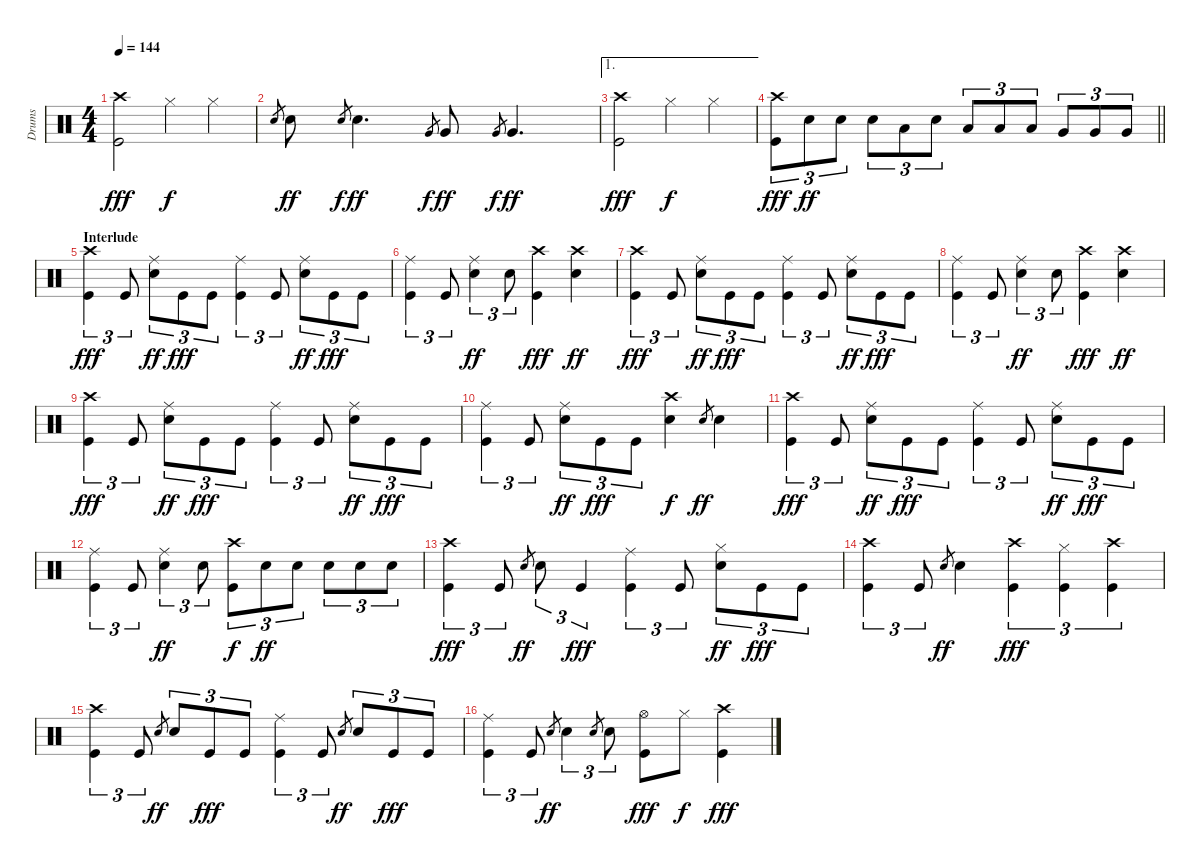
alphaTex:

\track ("Drums" "Drums") {instrument percussion}
\staff {score}
\articulation defaults
\ts (4 4)
\tempo 144
\clef neutral
\ks c
("Kick (hit)" "Crash high (hit)").2{dy fff} "Hi-Hat (closed)".4{dy f} "Hi-Hat (closed)".4 |
"Snare (hit) 2".8{gr} "Snare (hit) 2".8{dy ff} "Snare (hit) 2".8{gr dy f} "Snare (hit) 2".4{d dy ff} "Very Low Tom (hit)".8{gr dy f} "Very Low Tom (hit)".8{dy ff} "Very Low Tom (hit)".8{gr dy f} "Very Low Tom (hit)".4{d dy ff} |
\ae 1
("Kick (hit)" "Crash high (hit)").2{dy fff} "Hi-Hat (closed)".4{dy f} "Hi-Hat (closed)".4 |
\barLineRight lightlight
("Crash high (hit)" "Kick (hit)").8{tu (3 2) dy fff} "Snare (hit) 2".8{tu (3 2) dy ff} "Snare (hit) 2".8{tu (3 2)} "Snare (hit) 2".8{tu (3 2)} "Low Tom (hit)".8{tu (3 2)} "Snare (hit) 2".8{tu (3 2)} "Low Tom (hit)".8{tu (3 2)} "Low Tom (hit)".8{tu (3 2)} "Low Tom (hit)".8{tu (3 2)} "Very Low Tom (hit)".8{tu (3 2)} "Very Low Tom (hit)".8{tu (3 2)} "Very Low Tom (hit)".8{tu (3 2)} |
\section ("" "Interlude")
("Kick (hit)" "Crash high (hit)").4{tu (3 2) dy fff} "Kick (hit)".8{tu (3 2)} ("Ride (middle)" "Snare (hit) 2").8{tu (3 2) dy ff} "Kick (hit)".8{tu (3 2) dy fff} "Kick (hit)".8{tu (3 2)} ("Ride (middle)" "Kick (hit)").4{tu (3 2)} "Kick (hit)".8{tu (3 2)} ("Ride (middle)" "Snare (hit) 2").8{tu (3 2) dy ff} "Kick (hit)".8{tu (3 2) dy fff} "Kick (hit)".8{tu (3 2)} |
("Kick (hit)" "Ride (middle)").4{tu (3 2)} "Kick (hit)".8{tu (3 2)} ("Ride (middle)" "Snare (hit) 2").4{tu (3 2) dy ff} "Snare (hit) 2".8{tu (3 2)} ("Crash high (hit)" "Kick (hit)").4{dy fff} ("Snare (hit) 2" "Crash high (hit)").4{dy ff} |
("Kick (hit)" "Crash high (hit)").4{tu (3 2) dy fff} "Kick (hit)".8{tu (3 2)} ("Ride (middle)" "Snare (hit) 2").8{tu (3 2) dy ff} "Kick (hit)".8{tu (3 2) dy fff} "Kick (hit)".8{tu (3 2)} ("Ride (middle)" "Kick (hit)").4{tu (3 2)} "Kick (hit)".8{tu (3 2)} ("Ride (middle)" "Snare (hit) 2").8{tu (3 2) dy ff} "Kick (hit)".8{tu (3 2) dy fff} "Kick (hit)".8{tu (3 2)} |
("Kick (hit)" "Ride (middle)").4{tu (3 2)} "Kick (hit)".8{tu (3 2)} ("Ride (middle)" "Snare (hit) 2").4{tu (3 2) dy ff} "Snare (hit) 2".8{tu (3 2)} ("Crash high (hit)" "Kick (hit)").4{dy fff} ("Snare (hit) 2" "Crash high (hit)").4{dy ff} |
("Kick (hit)" "Crash high (hit)").4{tu (3 2) dy fff} "Kick (hit)".8{tu (3 2)} ("Ride (middle)" "Snare (hit) 2").8{tu (3 2) dy ff} "Kick (hit)".8{tu (3 2) dy fff} "Kick (hit)".8{tu (3 2)} ("Ride (middle)" "Kick (hit)").4{tu (3 2)} "Kick (hit)".8{tu (3 2)} ("Ride (middle)" "Snare (hit) 2").8{tu (3 2) dy ff} "Kick (hit)".8{tu (3 2) dy fff} "Kick (hit)".8{tu (3 2)} |
("Kick (hit)" "Ride (middle)").4{tu (3 2)} "Kick (hit)".8{tu (3 2)} ("Ride (middle)" "Snare (hit) 2").8{tu (3 2) dy ff} "Kick (hit)".8{tu (3 2) dy fff} "Kick (hit)".8{tu (3 2)} ("Crash high (hit)" "Snare (hit) 2").4{dy f} "Snare (hit) 2".8{gr dy ff} "Snare (hit) 2".4 |
("Kick (hit)" "Crash high (hit)").4{tu (3 2) dy fff} "Kick (hit)".8{tu (3 2)} ("Ride (middle)" "Snare (hit) 2").8{tu (3 2) dy ff} "Kick (hit)".8{tu (3 2) dy fff} "Kick (hit)".8{tu (3 2)} ("Ride (middle)" "Kick (hit)").4{tu (3 2)} "Kick (hit)".8{tu (3 2)} ("Ride (middle)" "Snare (hit) 2").8{tu (3 2) dy ff} "Kick (hit)".8{tu (3 2) dy fff} "Kick (hit)".8{tu (3 2)} |
("Kick (hit)" "Ride (middle)").4{tu (3 2)} "Kick (hit)".8{tu (3 2)} ("Ride (middle)" "Snare (hit) 2").4{tu (3 2) dy ff} "Snare (hit) 2".8{tu (3 2)} ("Kick (hit)" "Crash high (hit)").8{tu (3 2) dy f} "Snare (hit) 2".8{tu (3 2) dy ff} "Snare (hit) 2".8{tu (3 2)} "Snare (hit) 2".8{tu (3 2)} "Snare (hit) 2".8{tu (3 2)} "Snare (hit) 2".8{tu (3 2)} |
("Kick (hit)" "Crash high (hit)").4{tu (3 2) dy fff} "Kick (hit)".8{tu (3 2)} "Snare (hit) 2".8{gr dy ff} "Snare (hit) 2".8{tu (3 2)} "Kick (hit)".4{tu (3 2) dy fff} ("Ride (middle)" "Kick (hit)").4{tu (3 2)} "Kick (hit)".8{tu (3 2)} ("Hi-Hat (closed)" "Snare (hit) 2").8{tu (3 2) dy ff} "Kick (hit)".8{tu (3 2) dy fff} "Kick (hit)".8{tu (3 2)} |
("Kick (hit)" "Crash high (hit)").4{tu (3 2)} "Kick (hit)".8{tu (3 2)} "Snare (hit) 2".8{gr dy ff} "Snare (hit) 2".4 ("Crash high (hit)" "Kick (hit)").4{tu (3 2) dy fff} ("Kick (hit)" "Hi-Hat (closed)").4{tu (3 2)} ("Crash high (hit)" "Kick (hit)").4{tu (3 2)} |
("Kick (hit)" "Crash high (hit)").4{tu (3 2)} "Kick (hit)".8{tu (3 2)} "Snare (hit) 2".8{gr dy ff} "Snare (hit) 2".8{tu (3 2)} "Kick (hit)".8{tu (3 2) dy fff} "Kick (hit)".8{tu (3 2)} ("Ride (middle)" "Kick (hit)").4{tu (3 2)} "Kick (hit)".8{tu (3 2)} "Snare (hit) 2".8{gr dy ff} "Snare (hit) 2".8{tu (3 2)} "Kick (hit)".8{tu (3 2) dy fff} "Kick (hit)".8{tu (3 2)} |
("Kick (hit)" "Ride (middle)").4{tu (3 2)} "Kick (hit)".8{tu (3 2)} "Snare (hit) 2".8{gr dy ff} "Snare (hit) 2".4{tu (3 2)} "Snare (hit) 2".8{gr} "Snare (hit) 2".8{tu (3 2)} ("Kick (hit)" "Hi-Hat (open)").8{dy fff} "Hi-Hat (closed)".8{dy f} ("Crash high (hit)" "Kick (hit)").4{dy fff}
